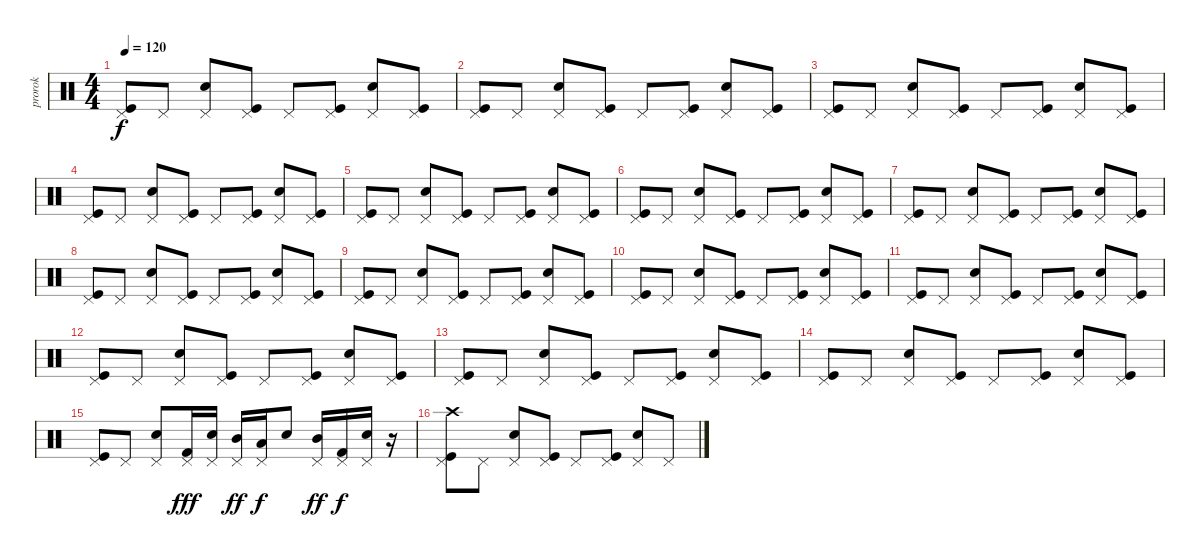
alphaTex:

\track ("prorok" "prorok") {instrument percussion}
\staff {score}
\articulation defaults
\ts (4 4)
\tempo 120
\clef neutral
\ks c
("Kick (hit)" "Pedal Hi-Hat (hit)").8{dy f} "Pedal Hi-Hat (hit)".8 ("Electric Snare (hit)" "Pedal Hi-Hat (hit)").8 ("Kick (hit)" "Pedal Hi-Hat (hit)").8 "Pedal Hi-Hat (hit)".8 ("Kick (hit)" "Pedal Hi-Hat (hit)").8 ("Electric Snare (hit)" "Pedal Hi-Hat (hit)").8 ("Kick (hit)" "Pedal Hi-Hat (hit)").8 |
("Kick (hit)" "Pedal Hi-Hat (hit)").8 "Pedal Hi-Hat (hit)".8 ("Electric Snare (hit)" "Pedal Hi-Hat (hit)").8 ("Kick (hit)" "Pedal Hi-Hat (hit)").8 "Pedal Hi-Hat (hit)".8 ("Kick (hit)" "Pedal Hi-Hat (hit)").8 ("Electric Snare (hit)" "Pedal Hi-Hat (hit)").8 ("Kick (hit)" "Pedal Hi-Hat (hit)").8 |
("Kick (hit)" "Pedal Hi-Hat (hit)").8 "Pedal Hi-Hat (hit)".8 ("Electric Snare (hit)" "Pedal Hi-Hat (hit)").8 ("Kick (hit)" "Pedal Hi-Hat (hit)").8 "Pedal Hi-Hat (hit)".8 ("Kick (hit)" "Pedal Hi-Hat (hit)").8 ("Electric Snare (hit)" "Pedal Hi-Hat (hit)").8 ("Kick (hit)" "Pedal Hi-Hat (hit)").8 |
("Kick (hit)" "Pedal Hi-Hat (hit)").8 "Pedal Hi-Hat (hit)".8 ("Electric Snare (hit)" "Pedal Hi-Hat (hit)").8 ("Kick (hit)" "Pedal Hi-Hat (hit)").8 "Pedal Hi-Hat (hit)".8 ("Kick (hit)" "Pedal Hi-Hat (hit)").8 ("Electric Snare (hit)" "Pedal Hi-Hat (hit)").8 ("Kick (hit)" "Pedal Hi-Hat (hit)").8 |
("Kick (hit)" "Pedal Hi-Hat (hit)").8 "Pedal Hi-Hat (hit)".8 ("Electric Snare (hit)" "Pedal Hi-Hat (hit)").8 ("Kick (hit)" "Pedal Hi-Hat (hit)").8 "Pedal Hi-Hat (hit)".8 ("Kick (hit)" "Pedal Hi-Hat (hit)").8 ("Electric Snare (hit)" "Pedal Hi-Hat (hit)").8 ("Kick (hit)" "Pedal Hi-Hat (hit)").8 |
("Kick (hit)" "Pedal Hi-Hat (hit)").8 "Pedal Hi-Hat (hit)".8 ("Electric Snare (hit)" "Pedal Hi-Hat (hit)").8 ("Kick (hit)" "Pedal Hi-Hat (hit)").8 "Pedal Hi-Hat (hit)".8 ("Kick (hit)" "Pedal Hi-Hat (hit)").8 ("Electric Snare (hit)" "Pedal Hi-Hat (hit)").8 ("Kick (hit)" "Pedal Hi-Hat (hit)").8 |
("Kick (hit)" "Pedal Hi-Hat (hit)").8 "Pedal Hi-Hat (hit)".8 ("Electric Snare (hit)" "Pedal Hi-Hat (hit)").8 ("Kick (hit)" "Pedal Hi-Hat (hit)").8 "Pedal Hi-Hat (hit)".8 ("Kick (hit)" "Pedal Hi-Hat (hit)").8 ("Electric Snare (hit)" "Pedal Hi-Hat (hit)").8 ("Kick (hit)" "Pedal Hi-Hat (hit)").8 |
("Kick (hit)" "Pedal Hi-Hat (hit)").8 "Pedal Hi-Hat (hit)".8 ("Electric Snare (hit)" "Pedal Hi-Hat (hit)").8 ("Kick (hit)" "Pedal Hi-Hat (hit)").8 "Pedal Hi-Hat (hit)".8 ("Kick (hit)" "Pedal Hi-Hat (hit)").8 ("Electric Snare (hit)" "Pedal Hi-Hat (hit)").8 ("Kick (hit)" "Pedal Hi-Hat (hit)").8 |
("Kick (hit)" "Pedal Hi-Hat (hit)").8 "Pedal Hi-Hat (hit)".8 ("Electric Snare (hit)" "Pedal Hi-Hat (hit)").8 ("Kick (hit)" "Pedal Hi-Hat (hit)").8 "Pedal Hi-Hat (hit)".8 ("Kick (hit)" "Pedal Hi-Hat (hit)").8 ("Electric Snare (hit)" "Pedal Hi-Hat (hit)").8 ("Kick (hit)" "Pedal Hi-Hat (hit)").8 |
("Kick (hit)" "Pedal Hi-Hat (hit)").8 "Pedal Hi-Hat (hit)".8 ("Electric Snare (hit)" "Pedal Hi-Hat (hit)").8 ("Kick (hit)" "Pedal Hi-Hat (hit)").8 "Pedal Hi-Hat (hit)".8 ("Kick (hit)" "Pedal Hi-Hat (hit)").8 ("Electric Snare (hit)" "Pedal Hi-Hat (hit)").8 ("Kick (hit)" "Pedal Hi-Hat (hit)").8 |
("Kick (hit)" "Pedal Hi-Hat (hit)").8 "Pedal Hi-Hat (hit)".8 ("Electric Snare (hit)" "Pedal Hi-Hat (hit)").8 ("Kick (hit)" "Pedal Hi-Hat (hit)").8 "Pedal Hi-Hat (hit)".8 ("Kick (hit)" "Pedal Hi-Hat (hit)").8 ("Electric Snare (hit)" "Pedal Hi-Hat (hit)").8 ("Kick (hit)" "Pedal Hi-Hat (hit)").8 |
("Kick (hit)" "Pedal Hi-Hat (hit)").8 "Pedal Hi-Hat (hit)".8 ("Electric Snare (hit)" "Pedal Hi-Hat (hit)").8 ("Kick (hit)" "Pedal Hi-Hat (hit)").8 "Pedal Hi-Hat (hit)".8 ("Kick (hit)" "Pedal Hi-Hat (hit)").8 ("Electric Snare (hit)" "Pedal Hi-Hat (hit)").8 ("Kick (hit)" "Pedal Hi-Hat (hit)").8 |
("Kick (hit)" "Pedal Hi-Hat (hit)").8 "Pedal Hi-Hat (hit)".8 ("Electric Snare (hit)" "Pedal Hi-Hat (hit)").8 ("Kick (hit)" "Pedal Hi-Hat (hit)").8 "Pedal Hi-Hat (hit)".8 ("Kick (hit)" "Pedal Hi-Hat (hit)").8 ("Electric Snare (hit)" "Pedal Hi-Hat (hit)").8 ("Kick (hit)" "Pedal Hi-Hat (hit)").8 |
("Kick (hit)" "Pedal Hi-Hat (hit)").8 "Pedal Hi-Hat (hit)".8 ("Electric Snare (hit)" "Pedal Hi-Hat (hit)").8 ("Kick (hit)" "Pedal Hi-Hat (hit)").8 "Pedal Hi-Hat (hit)".8 ("Kick (hit)" "Pedal Hi-Hat (hit)").8 ("Electric Snare (hit)" "Pedal Hi-Hat (hit)").8 ("Kick (hit)" "Pedal Hi-Hat (hit)").8 |
("Kick (hit)" "Pedal Hi-Hat (hit)").8 "Pedal Hi-Hat (hit)".8 ("Electric Snare (hit)" "Pedal Hi-Hat (hit)").8 ("Kick (hit) 2" "Pedal Hi-Hat (hit)").16{dy fff} ("Electric Snare (hit)" "Pedal Hi-Hat (hit)").16 ("Mid Tom (hit)" "Pedal Hi-Hat (hit)").16{dy ff} ("Low Tom (hit)" "Pedal Hi-Hat (hit)").16{dy f} "Electric Snare (hit)".8 ("Mid Tom (hit)" "Pedal Hi-Hat (hit)").16{dy ff} ("Kick (hit) 2" "Pedal Hi-Hat (hit)").16{dy f} ("Electric Snare (hit)" "Pedal Hi-Hat (hit)").16 r.16 |
("Kick (hit)" "Pedal Hi-Hat (hit)" "Crash high (hit)").8 "Pedal Hi-Hat (hit)".8 ("Electric Snare (hit)" "Pedal Hi-Hat (hit)").8 ("Kick (hit)" "Pedal Hi-Hat (hit)").8 "Pedal Hi-Hat (hit)".8 ("Kick (hit)" "Pedal Hi-Hat (hit)").8 ("Electric Snare (hit)" "Pedal Hi-Hat (hit)").8 "Pedal Hi-Hat (hit)".8
